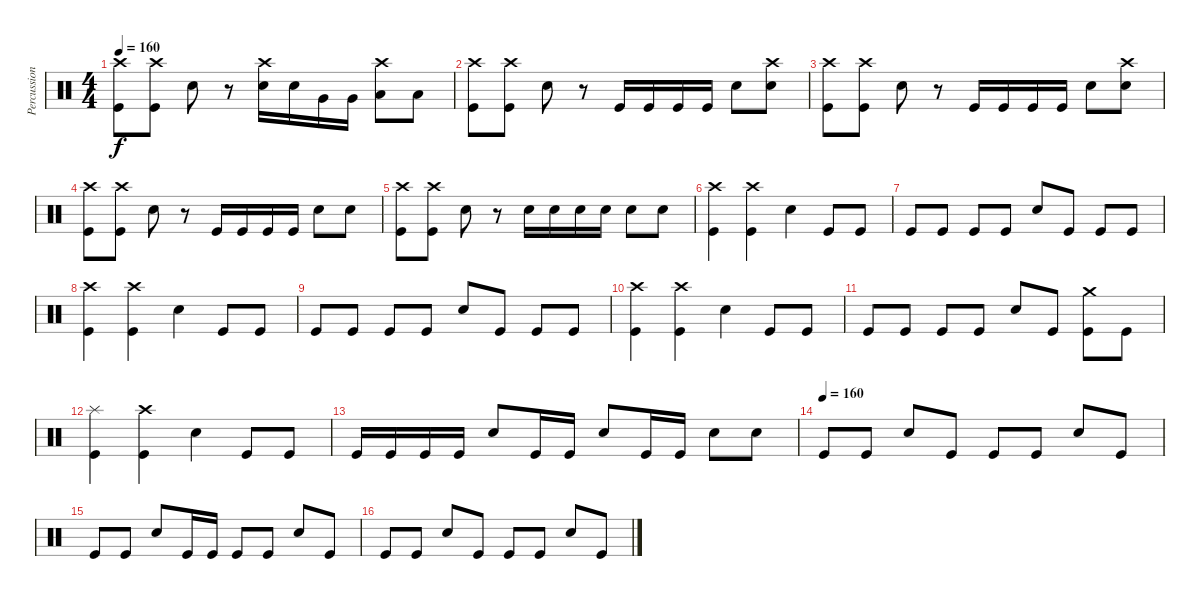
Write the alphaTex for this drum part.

\track ("Percussion" "Percussion") {instrument percussion}
\staff {score}
\articulation defaults
\ts (4 4)
\tempo 160
\clef neutral
\ks c
("Crash high (hit)" "Kick (hit)").8{dy f} ("Crash high (hit)" "Kick (hit)").8 "Electric Snare (hit)".8 r.8 ("Crash high (hit)" "Electric Snare (hit)").16 "Electric Snare (hit)".16 "Very Low Tom (hit)".16 "Very Low Tom (hit)".16 ("Crash high (hit)" "Low Floor Tom (hit)").8 "Low Floor Tom (hit)".8 |
("Crash high (hit)" "Kick (hit)").8 ("Crash high (hit)" "Kick (hit)").8 "Electric Snare (hit)".8 r.8 "Kick (hit)".16 "Kick (hit)".16 "Kick (hit)".16 "Kick (hit)".16 "Electric Snare (hit)".8 ("Crash high (hit)" "Electric Snare (hit)").8 |
("Crash high (hit)" "Kick (hit)").8 ("Crash high (hit)" "Kick (hit)").8 "Electric Snare (hit)".8 r.8 "Kick (hit)".16 "Kick (hit)".16 "Kick (hit)".16 "Kick (hit)".16 "Electric Snare (hit)".8 ("Crash high (hit)" "Electric Snare (hit)").8 |
("Crash high (hit)" "Kick (hit)").8 ("Crash high (hit)" "Kick (hit)").8 "Electric Snare (hit)".8 r.8 "Kick (hit)".16 "Kick (hit)".16 "Kick (hit)".16 "Kick (hit)".16 "Electric Snare (hit)".8 "Electric Snare (hit)".8 |
("Crash high (hit)" "Kick (hit)").8 ("Crash high (hit)" "Kick (hit)").8 "Electric Snare (hit)".8 r.8 "Electric Snare (hit)".16 "Electric Snare (hit)".16 "Electric Snare (hit)".16 "Electric Snare (hit)".16 "Electric Snare (hit)".8 "Electric Snare (hit)".8 |
("Crash high (hit)" "Kick (hit)").4 ("Crash high (hit)" "Kick (hit)").4 "Electric Snare (hit)".4 "Kick (hit)".8 "Kick (hit)".8 |
"Kick (hit)".8 "Kick (hit)".8 "Kick (hit)".8 "Kick (hit)".8 "Electric Snare (hit)".8 "Kick (hit)".8 "Kick (hit)".8 "Kick (hit)".8 |
("Crash high (hit)" "Kick (hit)").4 ("Crash high (hit)" "Kick (hit)").4 "Electric Snare (hit)".4 "Kick (hit)".8 "Kick (hit)".8 |
"Kick (hit)".8 "Kick (hit)".8 "Kick (hit)".8 "Kick (hit)".8 "Electric Snare (hit)".8 "Kick (hit)".8 "Kick (hit)".8 "Kick (hit)".8 |
("Crash high (hit)" "Kick (hit)").4 ("Crash high (hit)" "Kick (hit)").4 "Electric Snare (hit)".4 "Kick (hit)".8 "Kick (hit)".8 |
"Kick (hit)".8 "Kick (hit)".8 "Kick (hit)".8 "Kick (hit)".8 "Electric Snare (hit)".8 "Kick (hit)".8 ("Crash medium (hit)" "Kick (hit)").8 "Kick (hit)".8 |
("Splash (hit)" "Kick (hit)").4 ("Crash high (hit)" "Kick (hit)").4 "Electric Snare (hit)".4 "Kick (hit)".8 "Kick (hit)".8 |
"Kick (hit)".16 "Kick (hit)".16 "Kick (hit)".16 "Kick (hit)".16 "Electric Snare (hit)".8 "Kick (hit)".16 "Kick (hit)".16 "Electric Snare (hit)".8 "Kick (hit)".16 "Kick (hit)".16 "Electric Snare (hit)".8 "Electric Snare (hit)".8 |
\tempo (160)
"Kick (hit)".8 "Kick (hit)".8 "Electric Snare (hit)".8 "Kick (hit)".8 "Kick (hit)".8 "Kick (hit)".8 "Electric Snare (hit)".8 "Kick (hit)".8 |
"Kick (hit)".8 "Kick (hit)".8 "Electric Snare (hit)".8 "Kick (hit)".16 "Kick (hit)".16 "Kick (hit)".8 "Kick (hit)".8 "Electric Snare (hit)".8 "Kick (hit)".8 |
"Kick (hit)".8 "Kick (hit)".8 "Electric Snare (hit)".8 "Kick (hit)".8 "Kick (hit)".8 "Kick (hit)".8 "Electric Snare (hit)".8 "Kick (hit)".8
